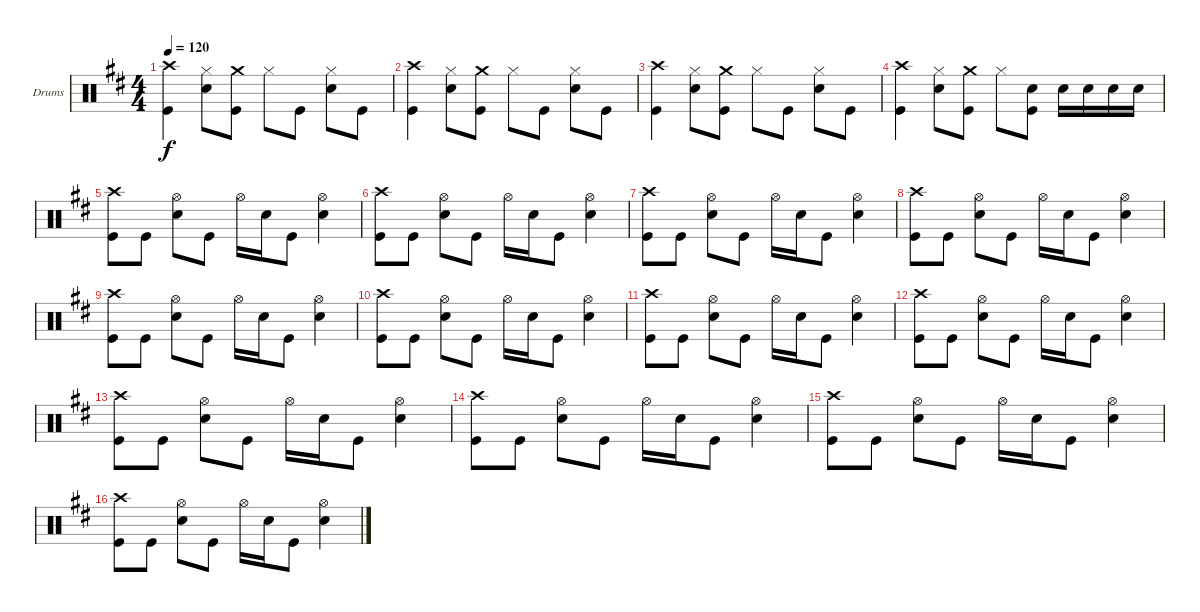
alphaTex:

\defaultSystemsLayout 4
\bracketExtendMode groupsimilarinstruments
\firstSystemTrackNameOrientation horizontal
\otherSystemsTrackNameOrientation horizontal
\track ("Drumkit" "Drums") {instrument percussion}
\staff {score}
\articulation defaults
\ts (4 4)
\tempo 120
\clef neutral
\scale
1.10088
\ks d
("Crash high (hit)" "Kick (hit)").4{dy f} ("Hi-Hat (closed)" "Snare (hit) 2").8 ("Crash medium (hit)" "Kick (hit)").8 "Hi-Hat (closed)".8 "Kick (hit)".8 ("Hi-Hat (closed)" "Snare (hit) 2").8 "Kick (hit)".8 |
\scale
0.949559 ("Crash high (hit)" "Kick (hit)").4 ("Hi-Hat (closed)" "Snare (hit) 2").8 ("Crash medium (hit)" "Kick (hit)").8 "Hi-Hat (closed)".8 "Kick (hit)".8 ("Hi-Hat (closed)" "Snare (hit) 2").8 "Kick (hit)".8 |
\scale
0.949559 ("Crash high (hit)" "Kick (hit)").4 ("Hi-Hat (closed)" "Snare (hit) 2").8 ("Crash medium (hit)" "Kick (hit)").8 "Hi-Hat (closed)".8 "Kick (hit)".8 ("Hi-Hat (closed)" "Snare (hit) 2").8 "Kick (hit)".8 |
\scale
1.10088 ("Crash high (hit)" "Kick (hit)").4 ("Hi-Hat (closed)" "Snare (hit) 2").8 ("Crash medium (hit)" "Kick (hit)").8 "Hi-Hat (closed)".8 ("Snare (hit) 2" "Kick (hit)").8 "Snare (hit) 2".16 "Snare (hit) 2".16 "Snare (hit) 2".16 "Snare (hit) 2".16 |
\scale
0.949559 ("Crash high (hit)" "Kick (hit)").8 "Kick (hit)".8 ("Hi-Hat (open)" "Snare (hit) 2").8 "Kick (hit)".8 "Hi-Hat (open)".16 "Snare (hit) 2".16 "Kick (hit)".8 ("Hi-Hat (open)" "Snare (hit) 2").4 |
\scale
0.949559 ("Crash high (hit)" "Kick (hit)").8 "Kick (hit)".8 ("Hi-Hat (open)" "Snare (hit) 2").8 "Kick (hit)".8 "Hi-Hat (open)".16 "Snare (hit) 2".16 "Kick (hit)".8 ("Hi-Hat (open)" "Snare (hit) 2").4 |
\scale
1.10088 ("Crash high (hit)" "Kick (hit)").8 "Kick (hit)".8 ("Hi-Hat (open)" "Snare (hit) 2").8 "Kick (hit)".8 "Hi-Hat (open)".16 "Snare (hit) 2".16 "Kick (hit)".8 ("Hi-Hat (open)" "Snare (hit) 2").4 |
\scale
0.949559 ("Crash high (hit)" "Kick (hit)").8 "Kick (hit)".8 ("Hi-Hat (open)" "Snare (hit) 2").8 "Kick (hit)".8 "Hi-Hat (open)".16 "Snare (hit) 2".16 "Kick (hit)".8 ("Hi-Hat (open)" "Snare (hit) 2").4 |
\scale
0.949559 ("Crash high (hit)" "Kick (hit)").8 "Kick (hit)".8 ("Hi-Hat (open)" "Snare (hit) 2").8 "Kick (hit)".8 "Hi-Hat (open)".16 "Snare (hit) 2".16 "Kick (hit)".8 ("Hi-Hat (open)" "Snare (hit) 2").4 |
\scale
1.10088 ("Crash high (hit)" "Kick (hit)").8 "Kick (hit)".8 ("Hi-Hat (open)" "Snare (hit) 2").8 "Kick (hit)".8 "Hi-Hat (open)".16 "Snare (hit) 2".16 "Kick (hit)".8 ("Hi-Hat (open)" "Snare (hit) 2").4 |
\scale
0.949559 ("Crash high (hit)" "Kick (hit)").8 "Kick (hit)".8 ("Hi-Hat (open)" "Snare (hit) 2").8 "Kick (hit)".8 "Hi-Hat (open)".16 "Snare (hit) 2".16 "Kick (hit)".8 ("Hi-Hat (open)" "Snare (hit) 2").4 |
\scale
0.949559 ("Crash high (hit)" "Kick (hit)").8 "Kick (hit)".8 ("Hi-Hat (open)" "Snare (hit) 2").8 "Kick (hit)".8 "Hi-Hat (open)".16 "Snare (hit) 2".16 "Kick (hit)".8 ("Hi-Hat (open)" "Snare (hit) 2").4 |
\scale
1.10088 ("Crash high (hit)" "Kick (hit)").8 "Kick (hit)".8 ("Hi-Hat (open)" "Snare (hit) 2").8 "Kick (hit)".8 "Hi-Hat (open)".16 "Snare (hit) 2".16 "Kick (hit)".8 ("Hi-Hat (open)" "Snare (hit) 2").4 |
\scale
0.949559 ("Crash high (hit)" "Kick (hit)").8 "Kick (hit)".8 ("Hi-Hat (open)" "Snare (hit) 2").8 "Kick (hit)".8 "Hi-Hat (open)".16 "Snare (hit) 2".16 "Kick (hit)".8 ("Hi-Hat (open)" "Snare (hit) 2").4 |
\scale
0.949559 ("Crash high (hit)" "Kick (hit)").8 "Kick (hit)".8 ("Hi-Hat (open)" "Snare (hit) 2").8 "Kick (hit)".8 "Hi-Hat (open)".16 "Snare (hit) 2".16 "Kick (hit)".8 ("Hi-Hat (open)" "Snare (hit) 2").4 |
\scale
1.10088 ("Crash high (hit)" "Kick (hit)").8 "Kick (hit)".8 ("Hi-Hat (open)" "Snare (hit) 2").8 "Kick (hit)".8 "Hi-Hat (open)".16 "Snare (hit) 2".16 "Kick (hit)".8 ("Hi-Hat (open)" "Snare (hit) 2").4
